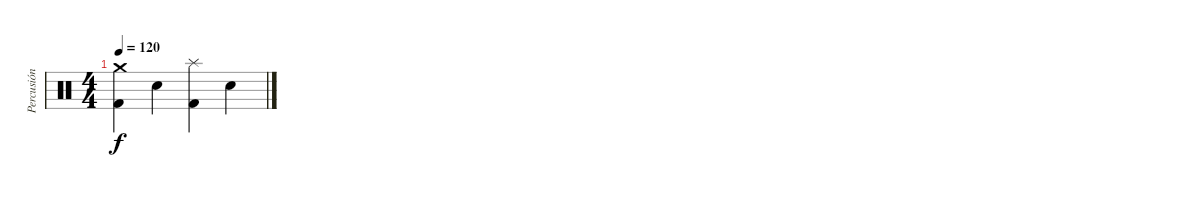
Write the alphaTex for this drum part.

\track ("Percusión" "Percusión") {instrument percussion}
\staff {score}
\articulation defaults
\ts (4 4)
\tempo 120
\clef neutral
\ks c
("Kick (hit) 2" "Crash medium (hit)").4{dy f} "Snare (hit) 2".4 ("Kick (hit) 2" "Splash (hit)").4 "Snare (hit) 2".4
